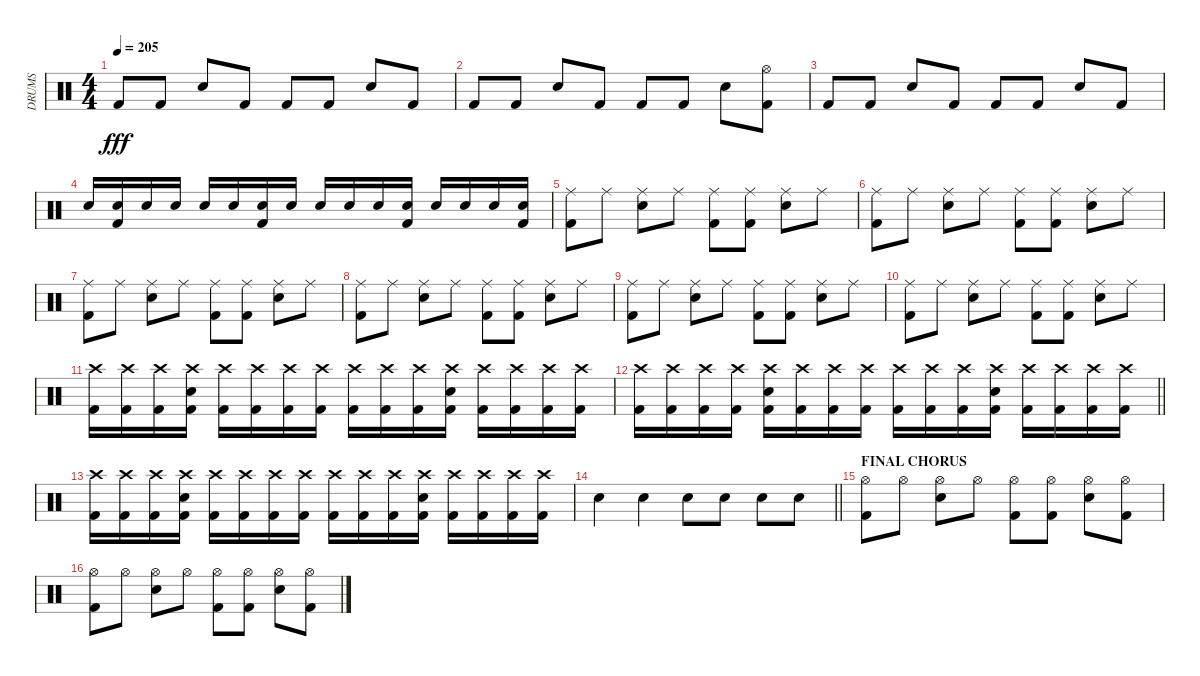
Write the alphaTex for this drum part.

\track ("DRUMS" "DRUMS") {instrument percussion}
\staff {score}
\articulation defaults
\ts (4 4)
\tempo 205
\clef neutral
\ks c "Kick (hit) 2".8{dy fff} "Kick (hit) 2".8 "Electric Snare (hit)".8 "Kick (hit) 2".8 "Kick (hit) 2".8 "Kick (hit) 2".8 "Electric Snare (hit)".8 "Kick (hit) 2".8
|
"Kick (hit) 2".8 "Kick (hit) 2".8 "Electric Snare (hit)".8 "Kick (hit) 2".8 "Kick (hit) 2".8 "Kick (hit) 2".8 "Electric Snare (hit)".8 ("Hi-Hat (open)" "Kick (hit) 2").8 |
"Kick (hit) 2".8 "Kick (hit) 2".8 "Electric Snare (hit)".8 "Kick (hit) 2".8 "Kick (hit) 2".8 "Kick (hit) 2".8 "Electric Snare (hit)".8 "Kick (hit) 2".8 |
"Electric Snare (hit)".16 ("Electric Snare (hit)" "Kick (hit) 2").16 "Electric Snare (hit)".16 "Electric Snare (hit)".16 "Electric Snare (hit)".16 "Electric Snare (hit)".16 ("Electric Snare (hit)" "Kick (hit) 2").16 "Electric Snare (hit)".16 "Electric Snare (hit)".16 "Electric Snare (hit)".16 "Electric Snare (hit)".16 ("Electric Snare (hit)" "Kick (hit) 2").16 "Electric Snare (hit)".16 "Electric Snare (hit)".16 "Electric Snare (hit)".16 ("Electric Snare (hit)" "Kick (hit) 2").16 |
("Ride (middle)" "Kick (hit) 2").8 "Ride (middle)".8 ("Ride (middle)" "Electric Snare (hit)").8 "Ride (middle)".8 ("Ride (middle)" "Kick (hit) 2").8 ("Ride (middle)" "Kick (hit) 2").8 ("Ride (middle)" "Electric Snare (hit)").8 "Ride (middle)".8 |
("Ride (middle)" "Kick (hit) 2").8 "Ride (middle)".8 ("Ride (middle)" "Electric Snare (hit)").8 "Ride (middle)".8 ("Ride (middle)" "Kick (hit) 2").8 ("Ride (middle)" "Kick (hit) 2").8 ("Ride (middle)" "Electric Snare (hit)").8 "Ride (middle)".8 |
("Ride (middle)" "Kick (hit) 2").8 "Ride (middle)".8 ("Ride (middle)" "Electric Snare (hit)").8 "Ride (middle)".8 ("Ride (middle)" "Kick (hit) 2").8 ("Ride (middle)" "Kick (hit) 2").8 ("Ride (middle)" "Electric Snare (hit)").8 "Ride (middle)".8 |
("Ride (middle)" "Kick (hit) 2").8 "Ride (middle)".8 ("Ride (middle)" "Electric Snare (hit)").8 "Ride (middle)".8 ("Ride (middle)" "Kick (hit) 2").8 ("Ride (middle)" "Kick (hit) 2").8 ("Ride (middle)" "Electric Snare (hit)").8 "Ride (middle)".8 |
("Ride (middle)" "Kick (hit) 2").8 "Ride (middle)".8 ("Ride (middle)" "Electric Snare (hit)").8 "Ride (middle)".8 ("Ride (middle)" "Kick (hit) 2").8 ("Ride (middle)" "Kick (hit) 2").8 ("Ride (middle)" "Electric Snare (hit)").8 "Ride (middle)".8 |
("Ride (middle)" "Kick (hit) 2").8 "Ride (middle)".8 ("Ride (middle)" "Electric Snare (hit)").8 "Ride (middle)".8 ("Ride (middle)" "Kick (hit) 2").8 ("Ride (middle)" "Kick (hit) 2").8 ("Ride (middle)" "Electric Snare (hit)").8 "Ride (middle)".8 |
("Crash high (hit)" "Kick (hit) 2").16 ("Crash high (hit)" "Kick (hit) 2").16 ("Crash high (hit)" "Kick (hit) 2").16 ("Crash high (hit)" "Electric Snare (hit)" "Kick (hit) 2").16 ("Crash high (hit)" "Kick (hit) 2").16 ("Crash high (hit)" "Kick (hit) 2").16 ("Crash high (hit)" "Kick (hit) 2").16 ("Crash high (hit)" "Kick (hit) 2").16 ("Crash high (hit)" "Kick (hit) 2").16 ("Crash high (hit)" "Kick (hit) 2").16 ("Crash high (hit)" "Kick (hit) 2").16 ("Crash high (hit)" "Electric Snare (hit)" "Kick (hit) 2").16 ("Crash high (hit)" "Kick (hit) 2").16 ("Crash high (hit)" "Kick (hit) 2").16 ("Crash high (hit)" "Kick (hit) 2").16 ("Crash high (hit)" "Kick (hit) 2").16 |
\barLineRight lightlight
("Crash high (hit)" "Kick (hit) 2").16 ("Crash high (hit)" "Kick (hit) 2").16 ("Crash high (hit)" "Kick (hit) 2").16 ("Crash high (hit)" "Kick (hit) 2").16 ("Crash high (hit)" "Electric Snare (hit)" "Kick (hit) 2").16 ("Crash high (hit)" "Kick (hit) 2").16 ("Crash high (hit)" "Kick (hit) 2").16 ("Crash high (hit)" "Kick (hit) 2").16 ("Crash high (hit)" "Kick (hit) 2").16 ("Crash high (hit)" "Kick (hit) 2").16 ("Crash high (hit)" "Kick (hit) 2").16 ("Crash high (hit)" "Electric Snare (hit)" "Kick (hit) 2").16 ("Crash high (hit)" "Kick (hit) 2").16 ("Crash high (hit)" "Kick (hit) 2").16 ("Crash high (hit)" "Kick (hit) 2").16 ("Crash high (hit)" "Kick (hit) 2").16 |
("Crash high (hit)" "Kick (hit) 2").16 ("Crash high (hit)" "Kick (hit) 2").16 ("Crash high (hit)" "Kick (hit) 2").16 ("Crash high (hit)" "Electric Snare (hit)" "Kick (hit) 2").16 ("Crash high (hit)" "Kick (hit) 2").16 ("Crash high (hit)" "Kick (hit) 2").16 ("Crash high (hit)" "Kick (hit) 2").16 ("Crash high (hit)" "Kick (hit) 2").16 ("Crash high (hit)" "Kick (hit) 2").16 ("Crash high (hit)" "Kick (hit) 2").16 ("Crash high (hit)" "Kick (hit) 2").16 ("Crash high (hit)" "Electric Snare (hit)" "Kick (hit) 2").16 ("Crash high (hit)" "Kick (hit) 2").16 ("Crash high (hit)" "Kick (hit) 2").16 ("Crash high (hit)" "Kick (hit) 2").16 ("Crash high (hit)" "Kick (hit) 2").16 |
\barLineRight lightlight "Electric Snare (hit)".4 "Electric Snare (hit)".4 "Electric Snare (hit)".8 "Electric Snare (hit)".8 "Electric Snare (hit)".8 "Electric Snare (hit)".8
|
\section ("" "FINAL CHORUS")
("Hi-Hat (open)" "Kick (hit) 2").8 "Hi-Hat (open)".8 ("Hi-Hat (open)" "Electric Snare (hit)").8 "Hi-Hat (open)".8 ("Hi-Hat (open)" "Kick (hit) 2").8 ("Hi-Hat (open)" "Kick (hit) 2").8 ("Hi-Hat (open)" "Electric Snare (hit)").8 ("Hi-Hat (open)" "Kick (hit) 2").8 |
("Hi-Hat (open)" "Kick (hit) 2").8 "Hi-Hat (open)".8 ("Hi-Hat (open)" "Electric Snare (hit)").8 "Hi-Hat (open)".8 ("Hi-Hat (open)" "Kick (hit) 2").8 ("Hi-Hat (open)" "Kick (hit) 2").8 ("Hi-Hat (open)" "Electric Snare (hit)").8 ("Hi-Hat (open)" "Kick (hit) 2").8
